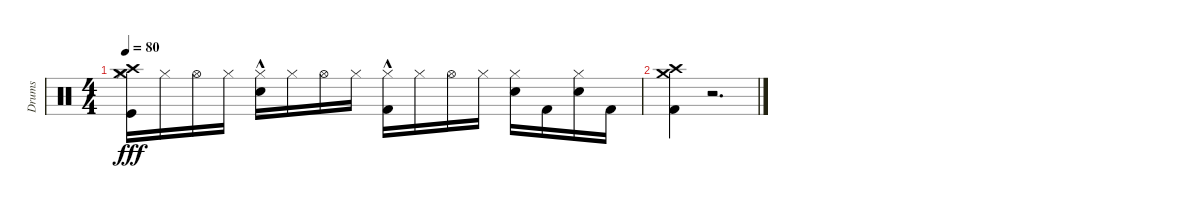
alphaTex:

\track ("Drums" "Drums") {instrument percussion}
\staff {score}
\articulation defaults
\ts (4 4)
\tempo 80
\clef neutral
\ks c
("Crash medium (hit)" "Crash high (hit)" "Hi-Hat (closed)" "Kick (hit)").16{dy fff} "Hi-Hat (closed)".16 "Hi-Hat (open)".16 "Hi-Hat (closed)".16 ("Hi-Hat (closed)" "Snare (hit) 2"{hac}).16 "Hi-Hat (closed)".16 "Hi-Hat (open)".16 "Hi-Hat (closed)".16 ("Kick (hit) 2"{hac} "Hi-Hat (closed)").16 "Hi-Hat (closed)".16 "Hi-Hat (open)".16 "Hi-Hat (closed)".16 ("Hi-Hat (closed)" "Snare (hit) 2").16 "Kick (hit) 2".16 ("Snare (hit) 2" "Hi-Hat (closed)").16 "Kick (hit) 2".16 |
("Crash medium (hit)" "Kick (hit) 2" "Crash high (hit)").4 r.2{d}
